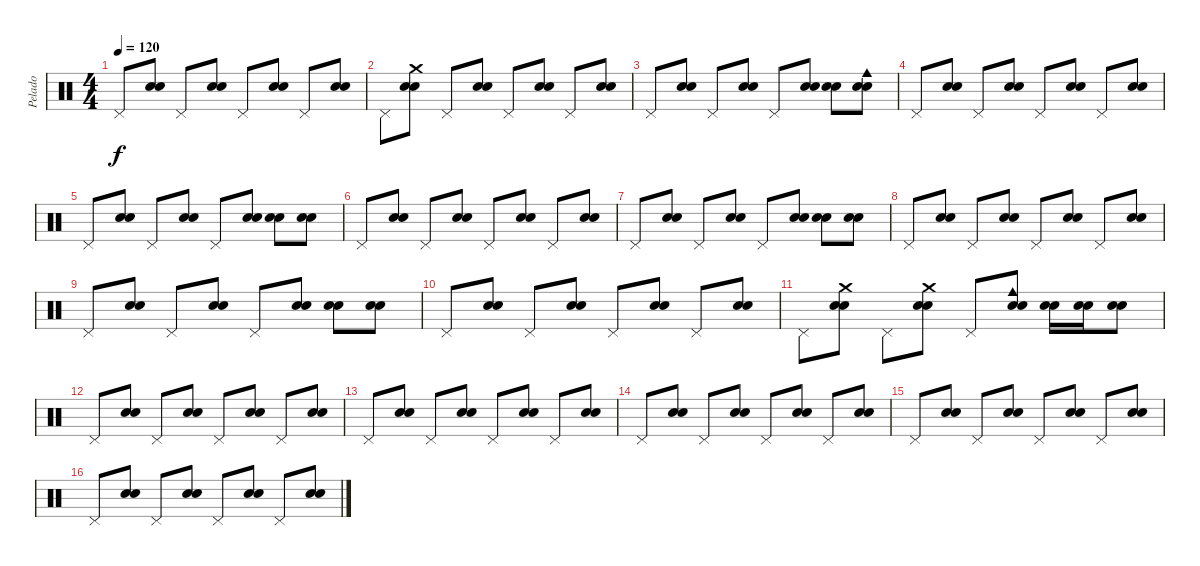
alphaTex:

\track ("Pelado" "Pelado") {instrument percussion}
\staff {score}
\articulation defaults
\ts (4 4)
\tempo 120
\clef neutral
\ks c "Pedal Hi-Hat (hit)".8{dy f}
("Electric Snare (hit)" "Electric Snare (hit)").8 "Pedal Hi-Hat (hit)".8 ("Electric Snare (hit)" "Electric Snare (hit)").8 "Pedal Hi-Hat (hit)".8 ("Electric Snare (hit)" "Electric Snare (hit)").8 "Pedal Hi-Hat (hit)".8 ("Electric Snare (hit)" "Electric Snare (hit)").8 |
"Pedal Hi-Hat (hit)".8 ("Crash medium (hit)" "Electric Snare (hit)" "Electric Snare (hit)").8 "Pedal Hi-Hat (hit)".8 ("Electric Snare (hit)" "Electric Snare (hit)").8 "Pedal Hi-Hat (hit)".8 ("Electric Snare (hit)" "Electric Snare (hit)").8 "Pedal Hi-Hat (hit)".8 ("Electric Snare (hit)" "Electric Snare (hit)").8 |
"Pedal Hi-Hat (hit)".8 ("Electric Snare (hit)" "Electric Snare (hit)").8 "Pedal Hi-Hat (hit)".8 ("Electric Snare (hit)" "Electric Snare (hit)").8 "Pedal Hi-Hat (hit)".8 ("Electric Snare (hit)" "Electric Snare (hit)").8 ("Snare (hit) 2" "Snare (hit) 2").8 ("Cowbell medium (hit)" "Electric Snare (hit)" "Electric Snare (hit)").8 |
"Pedal Hi-Hat (hit)".8 ("Electric Snare (hit)" "Electric Snare (hit)").8 "Pedal Hi-Hat (hit)".8 ("Electric Snare (hit)" "Electric Snare (hit)").8 "Pedal Hi-Hat (hit)".8 ("Electric Snare (hit)" "Electric Snare (hit)").8 "Pedal Hi-Hat (hit)".8 ("Electric Snare (hit)" "Electric Snare (hit)").8 |
"Pedal Hi-Hat (hit)".8 ("Electric Snare (hit)" "Electric Snare (hit)").8 "Pedal Hi-Hat (hit)".8 ("Electric Snare (hit)" "Electric Snare (hit)").8 "Pedal Hi-Hat (hit)".8 ("Electric Snare (hit)" "Electric Snare (hit)").8 ("Electric Snare (hit)" "Electric Snare (hit)").8 ("Electric Snare (hit)" "Electric Snare (hit)").8 |
"Pedal Hi-Hat (hit)".8 ("Electric Snare (hit)" "Electric Snare (hit)").8 "Pedal Hi-Hat (hit)".8 ("Electric Snare (hit)" "Electric Snare (hit)").8 "Pedal Hi-Hat (hit)".8 ("Electric Snare (hit)" "Electric Snare (hit)").8 "Pedal Hi-Hat (hit)".8 ("Electric Snare (hit)" "Electric Snare (hit)").8 |
"Pedal Hi-Hat (hit)".8 ("Electric Snare (hit)" "Electric Snare (hit)").8 "Pedal Hi-Hat (hit)".8 ("Electric Snare (hit)" "Electric Snare (hit)").8 "Pedal Hi-Hat (hit)".8 ("Electric Snare (hit)" "Electric Snare (hit)").8 ("Electric Snare (hit)" "Electric Snare (hit)").8 ("Electric Snare (hit)" "Electric Snare (hit)").8 |
"Pedal Hi-Hat (hit)".8 ("Electric Snare (hit)" "Electric Snare (hit)").8 "Pedal Hi-Hat (hit)".8 ("Electric Snare (hit)" "Electric Snare (hit)").8 "Pedal Hi-Hat (hit)".8 ("Electric Snare (hit)" "Electric Snare (hit)").8 "Pedal Hi-Hat (hit)".8 ("Electric Snare (hit)" "Electric Snare (hit)").8 |
"Pedal Hi-Hat (hit)".8 ("Electric Snare (hit)" "Electric Snare (hit)").8 "Pedal Hi-Hat (hit)".8 ("Electric Snare (hit)" "Electric Snare (hit)").8 "Pedal Hi-Hat (hit)".8 ("Electric Snare (hit)" "Electric Snare (hit)").8 ("Electric Snare (hit)" "Electric Snare (hit)").8 ("Electric Snare (hit)" "Electric Snare (hit)").8 |
"Pedal Hi-Hat (hit)".8 ("Electric Snare (hit)" "Electric Snare (hit)").8 "Pedal Hi-Hat (hit)".8 ("Electric Snare (hit)" "Electric Snare (hit)").8 "Pedal Hi-Hat (hit)".8 ("Electric Snare (hit)" "Electric Snare (hit)").8 "Pedal Hi-Hat (hit)".8 ("Electric Snare (hit)" "Electric Snare (hit)").8 |
"Pedal Hi-Hat (hit)".8 ("Crash medium (hit)" "Electric Snare (hit)" "Electric Snare (hit)").8 "Pedal Hi-Hat (hit)".8 ("Crash medium (hit)" "Electric Snare (hit)" "Electric Snare (hit)").8 "Pedal Hi-Hat (hit)".8 ("Cowbell medium (hit)" "Electric Snare (hit)" "Electric Snare (hit)").8 ("Electric Snare (hit)" "Electric Snare (hit)").16 ("Electric Snare (hit)" "Electric Snare (hit)").16 ("Electric Snare (hit)" "Electric Snare (hit)").8 |
"Pedal Hi-Hat (hit)".8 ("Electric Snare (hit)" "Electric Snare (hit)").8 "Pedal Hi-Hat (hit)".8 ("Electric Snare (hit)" "Electric Snare (hit)").8 "Pedal Hi-Hat (hit)".8 ("Electric Snare (hit)" "Electric Snare (hit)").8 "Pedal Hi-Hat (hit)".8 ("Electric Snare (hit)" "Electric Snare (hit)").8 |
"Pedal Hi-Hat (hit)".8 ("Electric Snare (hit)" "Electric Snare (hit)").8 "Pedal Hi-Hat (hit)".8 ("Electric Snare (hit)" "Electric Snare (hit)").8 "Pedal Hi-Hat (hit)".8 ("Electric Snare (hit)" "Electric Snare (hit)").8 "Pedal Hi-Hat (hit)".8 ("Electric Snare (hit)" "Electric Snare (hit)").8 |
"Pedal Hi-Hat (hit)".8 ("Electric Snare (hit)" "Electric Snare (hit)").8 "Pedal Hi-Hat (hit)".8 ("Electric Snare (hit)" "Electric Snare (hit)").8 "Pedal Hi-Hat (hit)".8 ("Electric Snare (hit)" "Electric Snare (hit)").8 "Pedal Hi-Hat (hit)".8 ("Electric Snare (hit)" "Electric Snare (hit)").8 |
"Pedal Hi-Hat (hit)".8 ("Electric Snare (hit)" "Electric Snare (hit)").8 "Pedal Hi-Hat (hit)".8 ("Electric Snare (hit)" "Electric Snare (hit)").8 "Pedal Hi-Hat (hit)".8 ("Electric Snare (hit)" "Electric Snare (hit)").8 "Pedal Hi-Hat (hit)".8 ("Electric Snare (hit)" "Electric Snare (hit)").8 |
"Pedal Hi-Hat (hit)".8 ("Electric Snare (hit)" "Electric Snare (hit)").8 "Pedal Hi-Hat (hit)".8 ("Electric Snare (hit)" "Electric Snare (hit)").8 "Pedal Hi-Hat (hit)".8 ("Electric Snare (hit)" "Electric Snare (hit)").8 "Pedal Hi-Hat (hit)".8 ("Electric Snare (hit)" "Electric Snare (hit)").8
